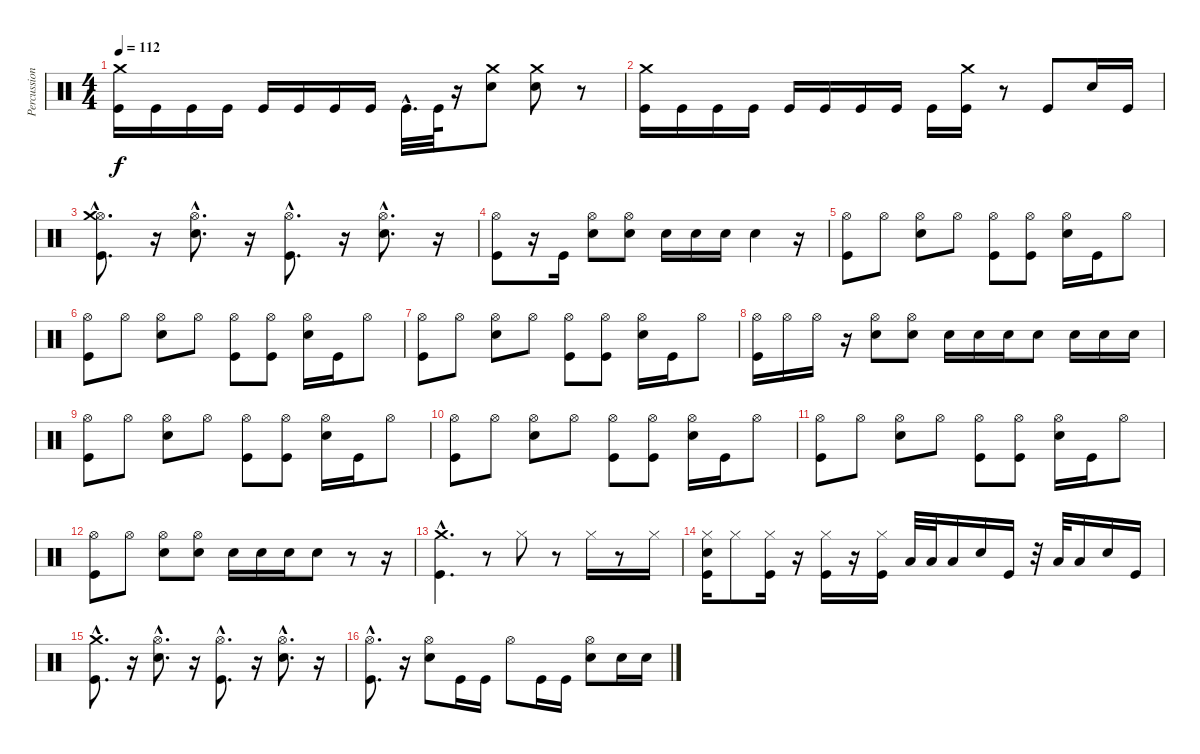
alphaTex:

\track ("Percussion" "Percussion") {instrument percussion}
\staff {score}
\articulation defaults
\ts (4 4)
\tempo 112
\clef neutral
\ks c
("Kick (hit)" "Crash medium (hit)").16{dy f} "Kick (hit)".16 "Kick (hit)".16 "Kick (hit)".16 "Kick (hit)".16 "Kick (hit)".16 "Kick (hit)".16 "Kick (hit)".16 "Kick (hit)"{hac}.32{d} "Kick (hit)".64 r.16 ("Crash medium (hit)" "Electric Snare (hit)").8 ("Crash medium (hit)" "Electric Snare (hit)").8 r.8 |
("Kick (hit)" "Crash medium (hit)").16 "Kick (hit)".16 "Kick (hit)".16 "Kick (hit)".16 "Kick (hit)".16 "Kick (hit)".16 "Kick (hit)".16 "Kick (hit)".16 "Kick (hit)".16 ("Kick (hit)" "Crash medium (hit)").16 r.8 "Kick (hit)".8 "Electric Snare (hit)".16 "Kick (hit)".16 |
("Hi-Hat (open)"{hac} "Kick (hit)"{hac} "Crash medium (hit)"{hac}).8{d} r.16 ("Hi-Hat (open)"{hac} "Electric Snare (hit)"{hac}).8{d} r.16 ("Hi-Hat (open)"{hac} "Kick (hit)"{hac}).8{d} r.16 ("Hi-Hat (open)"{hac} "Electric Snare (hit)"{hac}).8{d} r.16 |
("Hi-Hat (open)" "Kick (hit)").8 r.16 "Kick (hit)".16 ("Hi-Hat (open)" "Electric Snare (hit)").8 ("Hi-Hat (open)" "Electric Snare (hit)").8 "Electric Snare (hit)".16 "Electric Snare (hit)".16 "Electric Snare (hit)".16 "Electric Snare (hit)".4 r.16 |
("Hi-Hat (open)" "Kick (hit)").8 "Hi-Hat (open)".8 ("Hi-Hat (open)" "Electric Snare (hit)").8 "Hi-Hat (open)".8 ("Hi-Hat (open)" "Kick (hit)").8 ("Hi-Hat (open)" "Kick (hit)").8 ("Hi-Hat (open)" "Electric Snare (hit)").16 "Kick (hit)".16 "Hi-Hat (open)".8 |
("Hi-Hat (open)" "Kick (hit)").8 "Hi-Hat (open)".8 ("Hi-Hat (open)" "Electric Snare (hit)").8 "Hi-Hat (open)".8 ("Hi-Hat (open)" "Kick (hit)").8 ("Hi-Hat (open)" "Kick (hit)").8 ("Hi-Hat (open)" "Electric Snare (hit)").16 "Kick (hit)".16 "Hi-Hat (open)".8 |
("Hi-Hat (open)" "Kick (hit)").8 "Hi-Hat (open)".8 ("Hi-Hat (open)" "Electric Snare (hit)").8 "Hi-Hat (open)".8 ("Hi-Hat (open)" "Kick (hit)").8 ("Hi-Hat (open)" "Kick (hit)").8 ("Hi-Hat (open)" "Electric Snare (hit)").16 "Kick (hit)".16 "Hi-Hat (open)".8 |
("Hi-Hat (open)" "Kick (hit)").16 "Hi-Hat (open)".16 "Hi-Hat (open)".16 r.16 ("Hi-Hat (open)" "Electric Snare (hit)").8 ("Hi-Hat (open)" "Electric Snare (hit)").8 "Electric Snare (hit)".16 "Electric Snare (hit)".16 "Electric Snare (hit)".16 "Electric Snare (hit)".8 "Electric Snare (hit)".16 "Electric Snare (hit)".16 "Electric Snare (hit)".16 |
("Hi-Hat (open)" "Kick (hit)").8 "Hi-Hat (open)".8 ("Hi-Hat (open)" "Electric Snare (hit)").8 "Hi-Hat (open)".8 ("Hi-Hat (open)" "Kick (hit)").8 ("Hi-Hat (open)" "Kick (hit)").8 ("Hi-Hat (open)" "Electric Snare (hit)").16 "Kick (hit)".16 "Hi-Hat (open)".8 |
("Hi-Hat (open)" "Kick (hit)").8 "Hi-Hat (open)".8 ("Hi-Hat (open)" "Electric Snare (hit)").8 "Hi-Hat (open)".8 ("Hi-Hat (open)" "Kick (hit)").8 ("Hi-Hat (open)" "Kick (hit)").8 ("Hi-Hat (open)" "Electric Snare (hit)").16 "Kick (hit)".16 "Hi-Hat (open)".8 |
("Hi-Hat (open)" "Kick (hit)").8 "Hi-Hat (open)".8 ("Hi-Hat (open)" "Electric Snare (hit)").8 "Hi-Hat (open)".8 ("Hi-Hat (open)" "Kick (hit)").8 ("Hi-Hat (open)" "Kick (hit)").8 ("Hi-Hat (open)" "Electric Snare (hit)").16 "Kick (hit)".16 "Hi-Hat (open)".8 |
("Hi-Hat (open)" "Kick (hit)").8 "Hi-Hat (open)".8 ("Hi-Hat (open)" "Electric Snare (hit)").8 ("Hi-Hat (open)" "Electric Snare (hit)").8 "Electric Snare (hit)".16 "Electric Snare (hit)".16 "Electric Snare (hit)".16 "Electric Snare (hit)".8 r.8 r.16 |
("Kick (hit)"{hac} "Crash medium (hit)"{hac}).4{d} r.8 "Hi-Hat (closed)".8 r.8 "Hi-Hat (closed)".16 r.8 "Hi-Hat (closed)".16 |
("Electric Snare (hit)" "Kick (hit)" "Hi-Hat (closed)").16 "Hi-Hat (closed)".8 ("Kick (hit)" "Hi-Hat (closed)").16 r.16 ("Kick (hit)" "Hi-Hat (closed)").16 r.16 ("Kick (hit)" "Hi-Hat (closed)").16 "Low Tom (hit)".32 "Low Tom (hit)".32 "Low Tom (hit)".16 "Electric Snare (hit)".16 "Kick (hit)".16 r.32 "Low Tom (hit)".32 "Low Tom (hit)".16 "Electric Snare (hit)".16 "Kick (hit)".16 |
("Kick (hit)"{hac} "Crash medium (hit)"{hac}).8{d} r.16 ("Hi-Hat (open)"{hac} "Electric Snare (hit)"{hac}).8{d} r.16 ("Hi-Hat (open)"{hac} "Kick (hit)"{hac}).8{d} r.16 ("Hi-Hat (open)"{hac} "Electric Snare (hit)"{hac}).8{d} r.16 |
("Hi-Hat (open)"{hac} "Kick (hit)"{hac}).8{d} r.16 ("Hi-Hat (open)" "Electric Snare (hit)").8 "Kick (hit)".16 "Kick (hit)".16 "Hi-Hat (open)".8 "Kick (hit)".16 "Kick (hit)".16 ("Hi-Hat (open)" "Electric Snare (hit)").8 "Electric Snare (hit)".16 "Electric Snare (hit)".16
